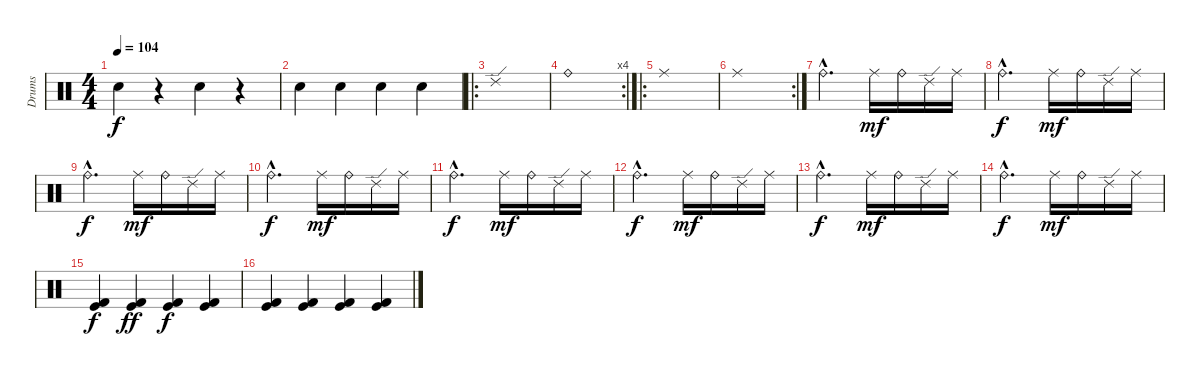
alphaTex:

\track ("Drums" "Drums") {instrument percussion}
\staff {score}
\articulation defaults
\ts (4 4)
\tempo 104
\clef neutral
\ks c "Snare (hit) 2".4{dy f}
r.4 "Snare (hit) 2".4 r.4 |
"Snare (hit) 2".4 "Snare (hit) 2".4 "Snare (hit) 2".4 "Snare (hit) 2".4 |
\ro "Ride (edge) 2".1
|
\rc 4 "Ride (bell)".1
|
\ro "Ride (middle)".1
|
\rc 2 "Ride (middle)".1
|
"Ride (bell)"{hac}.2{d} "Ride (middle)".16{dy mf} "Ride (bell)".16 "Ride (edge) 2".16 "Ride (middle)".16 |
"Ride (bell)"{hac}.2{d dy f} "Ride (middle)".16{dy mf} "Ride (bell)".16 "Ride (edge) 2".16 "Ride (middle)".16 |
"Ride (bell)"{hac}.2{d dy f} "Ride (middle)".16{dy mf} "Ride (bell)".16 "Ride (edge) 2".16 "Ride (middle)".16 |
"Ride (bell)"{hac}.2{d dy f} "Ride (middle)".16{dy mf} "Ride (bell)".16 "Ride (edge) 2".16 "Ride (middle)".16 |
"Ride (bell)"{hac}.2{d dy f} "Ride (middle)".16{dy mf} "Ride (bell)".16 "Ride (edge) 2".16 "Ride (middle)".16 |
"Ride (bell)"{hac}.2{d dy f} "Ride (middle)".16{dy mf} "Ride (bell)".16 "Ride (edge) 2".16 "Ride (middle)".16 |
"Ride (bell)"{hac}.2{d dy f} "Ride (middle)".16{dy mf} "Ride (bell)".16 "Ride (edge) 2".16 "Ride (middle)".16 |
"Ride (bell)"{hac}.2{d dy f} "Ride (middle)".16{dy mf} "Ride (bell)".16 "Ride (edge) 2".16 "Ride (middle)".16 |
("Kick (hit)" "Kick (hit) 2").4{dy f} ("Kick (hit)" "Kick (hit) 2").4{dy ff} ("Kick (hit) 2" "Kick (hit)").4{dy f} ("Kick (hit) 2" "Kick (hit)").4 |
("Kick (hit) 2" "Kick (hit)").4 ("Kick (hit) 2" "Kick (hit)").4 ("Kick (hit) 2" "Kick (hit)").4 ("Kick (hit) 2" "Kick (hit)").4
